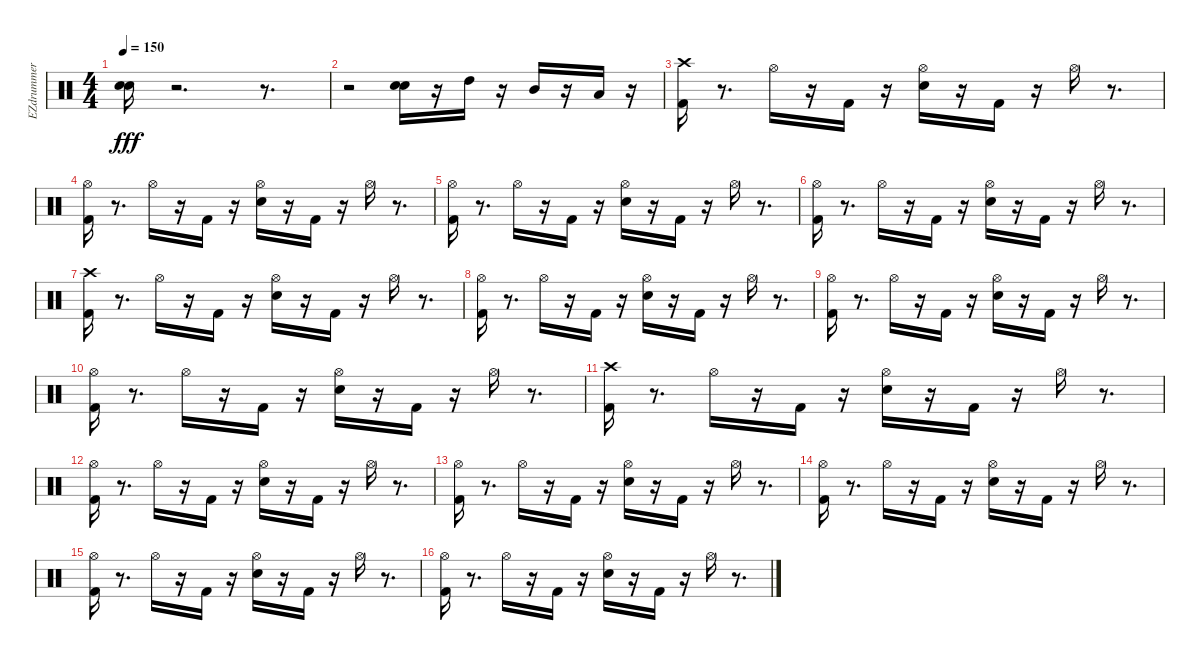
\track ("EZdrummer 01" "EZdrummer ") {instrument percussion}
\staff {score}
\articulation defaults
\ts (4 4)
\tempo 150
\clef neutral
\ks c
("Electric Snare (hit)" "Electric Snare (hit)").16{dy fff} r.2{d} r.8{d} |
r.2 ("Electric Snare (hit)" "Electric Snare (hit)").16 r.16 "High Tom (hit)".16 r.16 "Mid Tom (hit)".16 r.16 "Low Tom (hit)".16 r.16 |
("Kick (hit) 2" "Crash high (hit)").16 r.8{d} "Hi-Hat (open)".16 r.16 "Kick (hit) 2".16 r.16 ("Electric Snare (hit)" "Hi-Hat (open)").16 r.16 "Kick (hit) 2".16 r.16 "Hi-Hat (open)".16 r.8{d} |
("Kick (hit) 2" "Hi-Hat (open)").16 r.8{d} "Hi-Hat (open)".16 r.16 "Kick (hit) 2".16 r.16 ("Electric Snare (hit)" "Hi-Hat (open)").16 r.16 "Kick (hit) 2".16 r.16 "Hi-Hat (open)".16 r.8{d} |
("Kick (hit) 2" "Hi-Hat (open)").16 r.8{d} "Hi-Hat (open)".16 r.16 "Kick (hit) 2".16 r.16 ("Electric Snare (hit)" "Hi-Hat (open)").16 r.16 "Kick (hit) 2".16 r.16 "Hi-Hat (open)".16 r.8{d} |
("Kick (hit) 2" "Hi-Hat (open)").16 r.8{d} "Hi-Hat (open)".16 r.16 "Kick (hit) 2".16 r.16 ("Electric Snare (hit)" "Hi-Hat (open)").16 r.16 "Kick (hit) 2".16 r.16 "Hi-Hat (open)".16 r.8{d} |
("Kick (hit) 2" "Crash high (hit)").16 r.8{d} "Hi-Hat (open)".16 r.16 "Kick (hit) 2".16 r.16 ("Electric Snare (hit)" "Hi-Hat (open)").16 r.16 "Kick (hit) 2".16 r.16 "Hi-Hat (open)".16 r.8{d} |
("Kick (hit) 2" "Hi-Hat (open)").16 r.8{d} "Hi-Hat (open)".16 r.16 "Kick (hit) 2".16 r.16 ("Electric Snare (hit)" "Hi-Hat (open)").16 r.16 "Kick (hit) 2".16 r.16 "Hi-Hat (open)".16 r.8{d} |
("Kick (hit) 2" "Hi-Hat (open)").16 r.8{d} "Hi-Hat (open)".16 r.16 "Kick (hit) 2".16 r.16 ("Electric Snare (hit)" "Hi-Hat (open)").16 r.16 "Kick (hit) 2".16 r.16 "Hi-Hat (open)".16 r.8{d} |
("Kick (hit) 2" "Hi-Hat (open)").16 r.8{d} "Hi-Hat (open)".16 r.16 "Kick (hit) 2".16 r.16 ("Electric Snare (hit)" "Hi-Hat (open)").16 r.16 "Kick (hit) 2".16 r.16 "Hi-Hat (open)".16 r.8{d} |
("Kick (hit) 2" "Crash high (hit)").16 r.8{d} "Hi-Hat (open)".16 r.16 "Kick (hit) 2".16 r.16 ("Electric Snare (hit)" "Hi-Hat (open)").16 r.16 "Kick (hit) 2".16 r.16 "Hi-Hat (open)".16 r.8{d} |
("Kick (hit) 2" "Hi-Hat (open)").16 r.8{d} "Hi-Hat (open)".16 r.16 "Kick (hit) 2".16 r.16 ("Electric Snare (hit)" "Hi-Hat (open)").16 r.16 "Kick (hit) 2".16 r.16 "Hi-Hat (open)".16 r.8{d} |
("Kick (hit) 2" "Hi-Hat (open)").16 r.8{d} "Hi-Hat (open)".16 r.16 "Kick (hit) 2".16 r.16 ("Electric Snare (hit)" "Hi-Hat (open)").16 r.16 "Kick (hit) 2".16 r.16 "Hi-Hat (open)".16 r.8{d} |
("Kick (hit) 2" "Hi-Hat (open)").16 r.8{d} "Hi-Hat (open)".16 r.16 "Kick (hit) 2".16 r.16 ("Electric Snare (hit)" "Hi-Hat (open)").16 r.16 "Kick (hit) 2".16 r.16 "Hi-Hat (open)".16 r.8{d} |
("Kick (hit) 2" "Hi-Hat (open)").16 r.8{d} "Hi-Hat (open)".16 r.16 "Kick (hit) 2".16 r.16 ("Electric Snare (hit)" "Hi-Hat (open)").16 r.16 "Kick (hit) 2".16 r.16 "Hi-Hat (open)".16 r.8{d} |
("Kick (hit) 2" "Hi-Hat (open)").16 r.8{d} "Hi-Hat (open)".16 r.16 "Kick (hit) 2".16 r.16 ("Electric Snare (hit)" "Hi-Hat (open)").16 r.16 "Kick (hit) 2".16 r.16 "Hi-Hat (open)".16 r.8{d}
